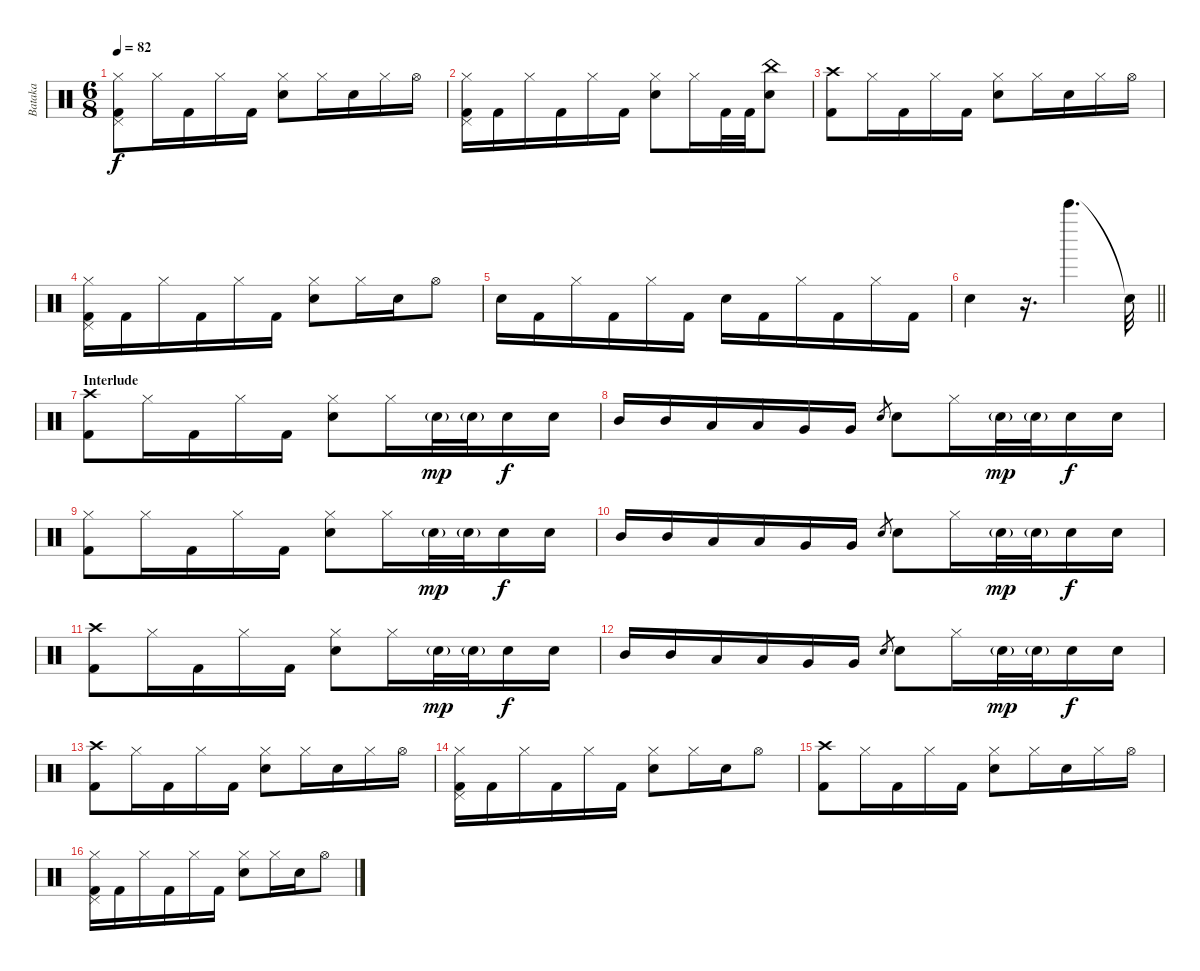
\track ("Bataka" "Bataka") {instrument percussion}
\staff {score}
\articulation defaults
\ts (6 8)
\tempo 82
\clef neutral
\ks c
("Hi-Hat (closed)" "Pedal Hi-Hat (hit)" "Kick (hit) 2").8{dy f} "Hi-Hat (closed)".16 "Kick (hit) 2".16 "Hi-Hat (closed)".16 "Kick (hit) 2".16 ("Hi-Hat (closed)" "Snare (hit) 2").8 "Hi-Hat (closed)".16 "Snare (hit) 2".16 "Hi-Hat (closed)".16 "Hi-Hat (open)".16 |
("Hi-Hat (closed)" "Pedal Hi-Hat (hit)" "Kick (hit) 2").16 "Kick (hit) 2".16 "Hi-Hat (closed)".16 "Kick (hit) 2".16 "Hi-Hat (closed)".16 "Kick (hit) 2".16 ("Hi-Hat (closed)" "Snare (hit) 2").8 "Hi-Hat (closed)".16 "Kick (hit) 2".32 "Kick (hit) 2".32 ("China (hit)" "Snare (hit) 2").8 |
("Crash high (hit)" "Kick (hit) 2").8 "Hi-Hat (closed)".16 "Kick (hit) 2".16 "Hi-Hat (closed)".16 "Kick (hit) 2".16 ("Hi-Hat (closed)" "Snare (hit) 2").8 "Hi-Hat (closed)".16 "Snare (hit) 2".16 "Hi-Hat (closed)".16 "Hi-Hat (open)".16 |
("Hi-Hat (closed)" "Pedal Hi-Hat (hit)" "Kick (hit) 2").16 "Kick (hit) 2".16 "Hi-Hat (closed)".16 "Kick (hit) 2".16 "Hi-Hat (closed)".16 "Kick (hit) 2".16 ("Hi-Hat (closed)" "Snare (hit) 2").8 "Hi-Hat (closed)".16 "Snare (hit) 2".16 "Hi-Hat (open)".8 |
"Snare (hit) 2".16 "Kick (hit) 2".16 "Hi-Hat (closed)".16 "Kick (hit) 2".16 "Hi-Hat (closed)".16 "Kick (hit) 2".16 "Snare (hit) 2".16 "Kick (hit) 2".16 "Hi-Hat (closed)".16 "Kick (hit) 2".16 "Hi-Hat (closed)".16 "Kick (hit) 2".16 |
\barLineRight lightlight "Snare (hit) 2".4
r.16{d} "Bell Tree (hit)".4{d} "Snare (hit)"{t}.32 |
\section ("" "Interlude")
("Crash high (hit)" "Kick (hit) 2").8 "Hi-Hat (closed)".16 "Kick (hit) 2".16 "Hi-Hat (closed)".16 "Kick (hit) 2".16 ("Hi-Hat (closed)" "Snare (hit) 2").8 "Hi-Hat (closed)".16 "Snare (hit) 2"{g}.32{dy mp} "Snare (hit) 2"{g}.32 "Snare (hit) 2".16{dy f} "Snare (hit) 2".16 |
"Mid Tom (hit)".16 "Mid Tom (hit)".16 "Low Tom (hit)".16 "Low Tom (hit)".16 "Very Low Tom (hit)".16 "Very Low Tom (hit)".16 "Electric Snare (hit)".8{gr} "Snare (hit) 2".8 "Hi-Hat (closed)".16 "Snare (hit) 2"{g}.32{dy mp} "Snare (hit) 2"{g}.32 "Snare (hit) 2".16{dy f} "Snare (hit) 2".16 |
("Hi-Hat (closed)" "Kick (hit) 2").8 "Hi-Hat (closed)".16 "Kick (hit) 2".16 "Hi-Hat (closed)".16 "Kick (hit) 2".16 ("Hi-Hat (closed)" "Snare (hit) 2").8 "Hi-Hat (closed)".16 "Snare (hit) 2"{g}.32{dy mp} "Snare (hit) 2"{g}.32 "Snare (hit) 2".16{dy f} "Snare (hit) 2".16 |
"Mid Tom (hit)".16 "Mid Tom (hit)".16 "Low Tom (hit)".16 "Low Tom (hit)".16 "Very Low Tom (hit)".16 "Very Low Tom (hit)".16 "Electric Snare (hit)".8{gr} "Snare (hit) 2".8 "Hi-Hat (closed)".16 "Snare (hit) 2"{g}.32{dy mp} "Snare (hit) 2"{g}.32 "Snare (hit) 2".16{dy f} "Snare (hit) 2".16 |
("Crash high (hit)" "Kick (hit) 2").8 "Hi-Hat (closed)".16 "Kick (hit) 2".16 "Hi-Hat (closed)".16 "Kick (hit) 2".16 ("Hi-Hat (closed)" "Snare (hit) 2").8 "Hi-Hat (closed)".16 "Snare (hit) 2"{g}.32{dy mp} "Snare (hit) 2"{g}.32 "Snare (hit) 2".16{dy f} "Snare (hit) 2".16 |
"Mid Tom (hit)".16 "Mid Tom (hit)".16 "Low Tom (hit)".16 "Low Tom (hit)".16 "Very Low Tom (hit)".16 "Very Low Tom (hit)".16 "Electric Snare (hit)".8{gr} "Snare (hit) 2".8 "Hi-Hat (closed)".16 "Snare (hit) 2"{g}.32{dy mp} "Snare (hit) 2"{g}.32 "Snare (hit) 2".16{dy f} "Snare (hit) 2".16 |
("Crash high (hit)" "Kick (hit) 2").8 "Hi-Hat (closed)".16 "Kick (hit) 2".16 "Hi-Hat (closed)".16 "Kick (hit) 2".16 ("Hi-Hat (closed)" "Snare (hit) 2").8 "Hi-Hat (closed)".16 "Snare (hit) 2".16 "Hi-Hat (closed)".16 "Hi-Hat (open)".16 |
("Hi-Hat (closed)" "Pedal Hi-Hat (hit)" "Kick (hit) 2").16 "Kick (hit) 2".16 "Hi-Hat (closed)".16 "Kick (hit) 2".16 "Hi-Hat (closed)".16 "Kick (hit) 2".16 ("Hi-Hat (closed)" "Snare (hit) 2").8 "Hi-Hat (closed)".16 "Snare (hit) 2".16 "Hi-Hat (open)".8 |
("Crash high (hit)" "Kick (hit) 2").8 "Hi-Hat (closed)".16 "Kick (hit) 2".16 "Hi-Hat (closed)".16 "Kick (hit) 2".16 ("Hi-Hat (closed)" "Snare (hit) 2").8 "Hi-Hat (closed)".16 "Snare (hit) 2".16 "Hi-Hat (closed)".16 "Hi-Hat (open)".16 |
("Hi-Hat (closed)" "Pedal Hi-Hat (hit)" "Kick (hit) 2").16 "Kick (hit) 2".16 "Hi-Hat (closed)".16 "Kick (hit) 2".16 "Hi-Hat (closed)".16 "Kick (hit) 2".16 ("Hi-Hat (closed)" "Snare (hit) 2").8 "Hi-Hat (closed)".16 "Snare (hit) 2".16 "Hi-Hat (open)".8
